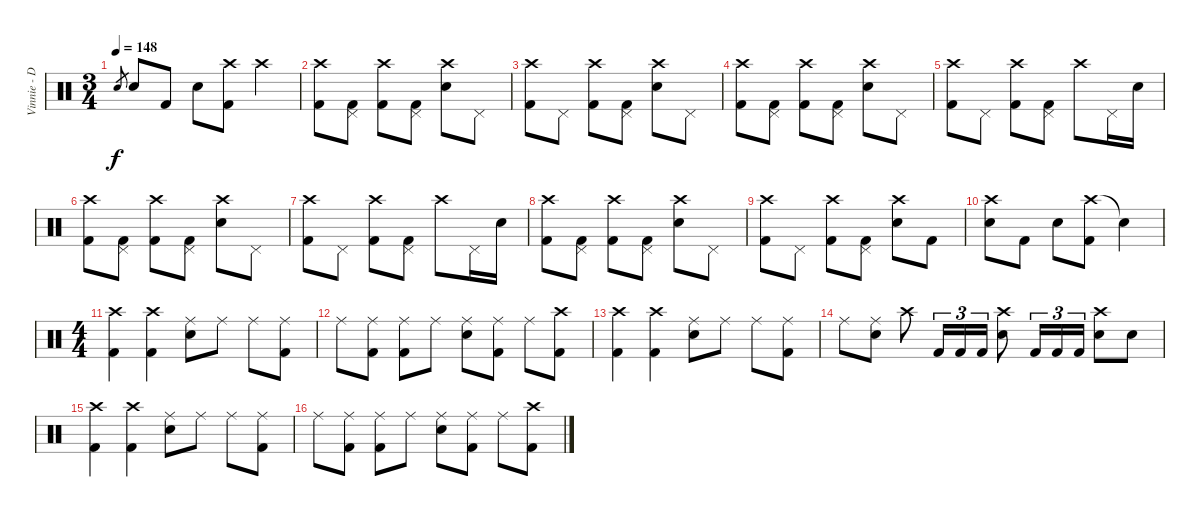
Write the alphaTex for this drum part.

\track ("Vinnie - Drums" "Vinnie - D") {instrument percussion}
\staff {score}
\articulation defaults
\ts (3 4)
\tempo 148
\clef neutral
\ks c "Electric Snare (hit)".8{gr dy f} "Electric Snare (hit)".8 "Kick (hit) 2".8 "Electric Snare (hit)".8
("Crash high (hit)" "Kick (hit) 2").8 "Crash high (hit)".4 |
("Crash high (hit)" "Kick (hit) 2").8 ("Pedal Hi-Hat (hit)" "Kick (hit) 2").8 ("Crash high (hit)" "Kick (hit) 2").8 ("Pedal Hi-Hat (hit)" "Kick (hit) 2").8 ("Crash high (hit)" "Electric Snare (hit)").8 "Pedal Hi-Hat (hit)".8 |
("Crash high (hit)" "Kick (hit) 2").8 "Pedal Hi-Hat (hit)".8 ("Crash high (hit)" "Kick (hit) 2").8 ("Pedal Hi-Hat (hit)" "Kick (hit) 2").8 ("Crash high (hit)" "Electric Snare (hit)").8 "Pedal Hi-Hat (hit)".8 |
("Crash high (hit)" "Kick (hit) 2").8 ("Pedal Hi-Hat (hit)" "Kick (hit) 2").8 ("Crash high (hit)" "Kick (hit) 2").8 ("Pedal Hi-Hat (hit)" "Kick (hit) 2").8 ("Crash high (hit)" "Electric Snare (hit)").8 "Pedal Hi-Hat (hit)".8 |
("Crash high (hit)" "Kick (hit) 2").8 "Pedal Hi-Hat (hit)".8 ("Crash high (hit)" "Kick (hit) 2").8 ("Pedal Hi-Hat (hit)" "Kick (hit) 2").8 "Crash high (hit)".8 "Pedal Hi-Hat (hit)".16 "Electric Snare (hit)".16 |
("Crash high (hit)" "Kick (hit) 2").8 ("Pedal Hi-Hat (hit)" "Kick (hit) 2").8 ("Crash high (hit)" "Kick (hit) 2").8 ("Pedal Hi-Hat (hit)" "Kick (hit) 2").8 ("Crash high (hit)" "Electric Snare (hit)").8 "Pedal Hi-Hat (hit)".8 |
("Crash high (hit)" "Kick (hit) 2").8 "Pedal Hi-Hat (hit)".8 ("Crash high (hit)" "Kick (hit) 2").8 ("Pedal Hi-Hat (hit)" "Kick (hit) 2").8 "Crash high (hit)".8 "Pedal Hi-Hat (hit)".16 "Electric Snare (hit)".16 |
("Crash high (hit)" "Kick (hit) 2").8 ("Pedal Hi-Hat (hit)" "Kick (hit) 2").8 ("Crash high (hit)" "Kick (hit) 2").8 ("Pedal Hi-Hat (hit)" "Kick (hit) 2").8 ("Crash high (hit)" "Electric Snare (hit)").8 "Pedal Hi-Hat (hit)".8 |
("Crash high (hit)" "Kick (hit) 2").8 "Pedal Hi-Hat (hit)".8 ("Crash high (hit)" "Kick (hit) 2").8 ("Pedal Hi-Hat (hit)" "Kick (hit) 2").8 ("Crash high (hit)" "Electric Snare (hit)").8 "Kick (hit) 2".8 |
("Crash high (hit)" "Electric Snare (hit)").8 "Kick (hit) 2".8 "Electric Snare (hit)".8 ("Crash high (hit)" "Kick (hit) 2").8 "Snare (hit)"{t}.4 |
\ts (4 4)
("Crash high (hit)" "Kick (hit) 2").4 ("Crash high (hit)" "Kick (hit) 2").4 ("Ride (middle)" "Electric Snare (hit)").8 "Ride (middle)".8 "Ride (middle)".8 ("Ride (middle)" "Kick (hit) 2").8 |
"Ride (middle)".8 ("Ride (middle)" "Kick (hit) 2").8 ("Ride (middle)" "Kick (hit) 2").8 "Ride (middle)".8 ("Ride (middle)" "Electric Snare (hit)").8 ("Ride (middle)" "Kick (hit) 2").8 "Ride (middle)".8 ("Crash high (hit)" "Kick (hit) 2").8 |
("Crash high (hit)" "Kick (hit) 2").4 ("Crash high (hit)" "Kick (hit) 2").4 ("Ride (middle)" "Electric Snare (hit)").8 "Ride (middle)".8 "Ride (middle)".8 ("Ride (middle)" "Kick (hit) 2").8 |
"Ride (middle)".8 ("Ride (middle)" "Electric Snare (hit)").8 "Crash high (hit)".8 "Kick (hit) 2".16{tu (3 2)} "Kick (hit) 2".16{tu (3 2)} "Kick (hit) 2".16{tu (3 2)} ("Crash high (hit)" "Electric Snare (hit)").8 "Kick (hit) 2".16{tu (3 2)} "Kick (hit) 2".16{tu (3 2)} "Kick (hit) 2".16{tu (3 2)} ("Crash high (hit)" "Electric Snare (hit)").8 "Electric Snare (hit)".8 |
("Crash high (hit)" "Kick (hit) 2").4 ("Crash high (hit)" "Kick (hit) 2").4 ("Ride (middle)" "Electric Snare (hit)").8 "Ride (middle)".8 "Ride (middle)".8 ("Ride (middle)" "Kick (hit) 2").8 |
"Ride (middle)".8 ("Ride (middle)" "Kick (hit) 2").8 ("Ride (middle)" "Kick (hit) 2").8 "Ride (middle)".8 ("Ride (middle)" "Electric Snare (hit)").8 ("Ride (middle)" "Kick (hit) 2").8 "Ride (middle)".8 ("Crash high (hit)" "Kick (hit) 2").8
